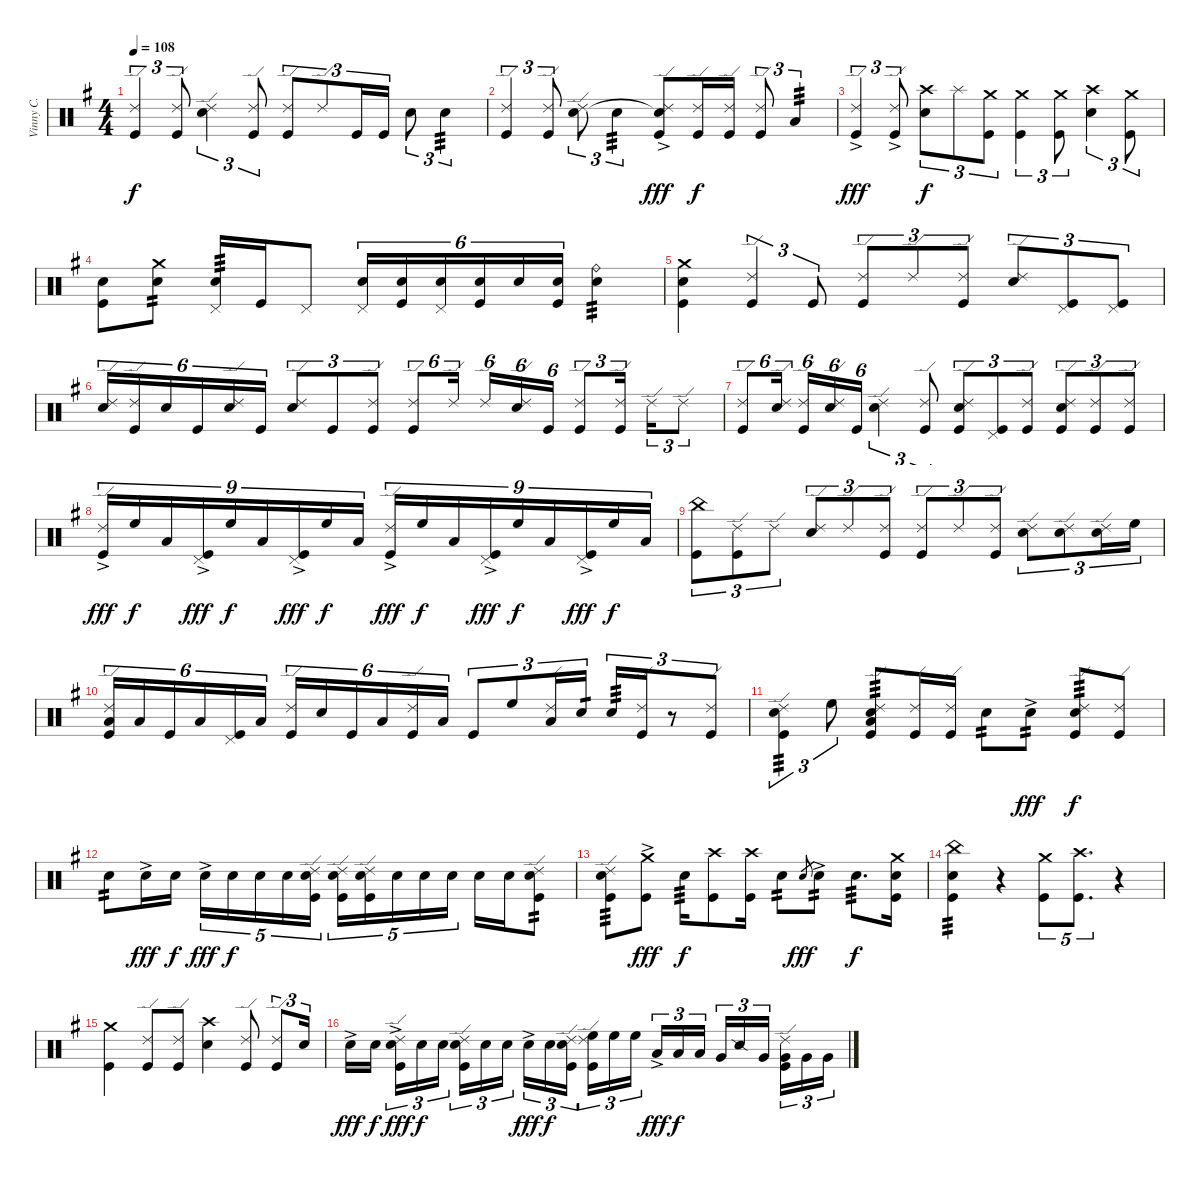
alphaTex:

\track ("Vinny C." "Vinny C.") {instrument percussion}
\staff {score}
\articulation defaults
\ts (4 4)
\tempo 108
\clef neutral
\ks g
("Ride (edge) 2" "Kick (hit)").4{tu (3 2) dy f} ("Ride (edge) 2" "Kick (hit)").8{tu (3 2)} ("Ride (edge) 2" "Electric Snare (hit)").4{tu (3 2)} ("Ride (edge) 2" "Kick (hit)").8{tu (3 2)} ("Ride (edge) 2" "Kick (hit)").8{tu (3 2)} "Ride (edge) 2".8{tu (3 2)} "Kick (hit)".16{tu (3 2)} "Kick (hit)".16{tu (3 2)} "Electric Snare (hit)".8{tu (3 2)} "Electric Snare (hit)".4{tu (3 2) tp 3} |
("Ride (edge) 2" "Kick (hit)").4{tu (3 2)} ("Ride (edge) 2" "Kick (hit)").8{tu (3 2)} ("Ride (edge) 2" "Electric Snare (hit)").8{tu (3 2)} "Electric Snare (hit)".4{tu (3 2) tp 3} ("Ride (edge) 2"{ac} "Electric Snare (hit)"{t} "Kick (hit)").8{dy fff} ("Ride (edge) 2" "Kick (hit)").16{dy f} ("Ride (edge) 2" "Kick (hit)").16 ("Ride (edge) 2" "Kick (hit)").8{tu (3 2)} "Low Tom (hit)".4{tu (3 2) tp 3} |
("Ride (edge) 2"{ac} "Kick (hit)").4{tu (3 2) dy fff} ("Ride (edge) 2"{ac} "Kick (hit)").8{tu (3 2)} ("Crash high (hit)" "Electric Snare (hit)").8{tu (3 2) dy f} "Splash (hit)".8{tu (3 2)} ("Crash medium (hit)" "Kick (hit)").8{tu (3 2)} ("Crash medium (hit)" "Kick (hit)").4{tu (3 2)} ("Crash medium (hit)" "Kick (hit)").8{tu (3 2)} ("Crash high (hit)" "Electric Snare (hit)").4{tu (3 2)} ("Crash medium (hit)" "Kick (hit)").8{tu (3 2)} |
("Electric Snare (hit)" "Kick (hit)").8 ("Crash medium (hit)" "Electric Snare (hit)").8{tp 2} ("Pedal Hi-Hat (hit)" "Electric Snare (hit)").16{tp 3} "Kick (hit)".16 "Pedal Hi-Hat (hit)".8 ("Pedal Hi-Hat (hit)" "Electric Snare (hit)").16{tu (6 4)} ("Electric Snare (hit)" "Kick (hit)").16{tu (6 4)} ("Pedal Hi-Hat (hit)" "Electric Snare (hit)").16{tu (6 4)} ("Electric Snare (hit)" "Kick (hit)").16{tu (6 4)} "Electric Snare (hit)".16{tu (6 4)} ("Electric Snare (hit)" "Kick (hit)").16{tu (6 4)} ("Ride (bell)" "Electric Snare (hit)").4{tp 3} |
("Crash medium (hit)" "Electric Snare (hit)" "Kick (hit)").4 ("Ride (edge) 2" "Kick (hit)").4{tu (3 2)} "Kick (hit)".8{tu (3 2)} ("Ride (edge) 2" "Kick (hit)").8{tu (3 2)} "Ride (edge) 2".8{tu (3 2)} ("Ride (edge) 2" "Kick (hit)").8{tu (3 2)} ("Ride (edge) 2" "Electric Snare (hit)").8{tu (3 2)} ("Pedal Hi-Hat (hit)" "Kick (hit)").8{tu (3 2)} ("Pedal Hi-Hat (hit)" "Kick (hit)").8{tu (3 2)} |
("Ride (edge) 2" "Electric Snare (hit)").16{tu (6 4)} ("Ride (edge) 2" "Kick (hit)").16{tu (6 4)} "Electric Snare (hit)".16{tu (6 4)} "Kick (hit)".16{tu (6 4)} ("Ride (edge) 2" "Electric Snare (hit)").16{tu (6 4)} "Kick (hit)".16{tu (6 4)} ("Ride (edge) 2" "Electric Snare (hit)").8{tu (3 2)} "Kick (hit)".8{tu (3 2)} ("Ride (edge) 2" "Kick (hit)").8{tu (3 2)} ("Ride (edge) 2" "Kick (hit)").8{tu (6 4)} "Ride (edge) 2".16{tu (6 4)} "Ride (edge) 2".16{tu (6 4)} ("Ride (edge) 2" "Electric Snare (hit)").16{tu (6 4)} "Kick (hit)".16{tu (6 4)} ("Ride (edge) 2" "Kick (hit)").8{tu (3 2)} ("Ride (edge) 2" "Kick (hit)").16{tu (3 2)} "Ride (edge) 2".16{tu (3 2)} "Ride (edge) 2".8{tu (3 2)} |
("Ride (edge) 2" "Kick (hit)").8{tu (6 4)} ("Ride (edge) 2" "Electric Snare (hit)").16{tu (6 4)} ("Ride (edge) 2" "Kick (hit)").16{tu (6 4)} ("Ride (edge) 2" "Electric Snare (hit)").16{tu (6 4)} "Kick (hit)".16{tu (6 4)} ("Ride (edge) 2" "Electric Snare (hit)").4{tu (3 2)} ("Ride (edge) 2" "Kick (hit)").8{tu (3 2)} ("Ride (edge) 2" "Electric Snare (hit)" "Kick (hit)").8{tu (3 2)} ("Pedal Hi-Hat (hit)" "Kick (hit)").8{tu (3 2)} ("Ride (edge) 2" "Kick (hit)").8{tu (3 2)} ("Ride (edge) 2" "Electric Snare (hit)" "Kick (hit)").8{tu (3 2)} ("Ride (edge) 2" "Kick (hit)").8{tu (3 2)} ("Ride (edge) 2" "Kick (hit)").8{tu (3 2)} |
("Ride (edge) 2"{ac} "Kick (hit)").16{tu (9 8) dy fff} "High Floor Tom (hit)".16{tu (9 8) dy f} "Low Tom (hit)".16{tu (9 8)} ("Pedal Hi-Hat (hit)"{ac} "Kick (hit)").16{tu (9 8) dy fff} "High Floor Tom (hit)".16{tu (9 8) dy f} "Low Tom (hit)".16{tu (9 8)} ("Pedal Hi-Hat (hit)"{ac} "Kick (hit)").16{tu (9 8) dy fff} "High Floor Tom (hit)".16{tu (9 8) dy f} "Low Tom (hit)".16{tu (9 8)} ("Ride (edge) 2"{ac} "Kick (hit)").16{tu (9 8) dy fff} "High Floor Tom (hit)".16{tu (9 8) dy f} "Low Tom (hit)".16{tu (9 8)} ("Pedal Hi-Hat (hit)"{ac} "Kick (hit)").16{tu (9 8) dy fff} "High Floor Tom (hit)".16{tu (9 8) dy f} "Low Tom (hit)".16{tu (9 8)} ("Pedal Hi-Hat (hit)"{ac} "Kick (hit)").16{tu (9 8) dy fff} "High Floor Tom (hit)".16{tu (9 8) dy f} "Low Tom (hit)".16{tu (9 8)} |
("China (hit)" "Kick (hit)").8{tu (3 2)} ("Ride (edge) 2" "Kick (hit)").8{tu (3 2)} "Ride (edge) 2".8{tu (3 2)} ("Ride (edge) 2" "Electric Snare (hit)").8{tu (3 2)} "Ride (edge) 2".8{tu (3 2)} ("Ride (edge) 2" "Kick (hit)").8{tu (3 2)} ("Ride (edge) 2" "Kick (hit)").8{tu (3 2)} "Ride (edge) 2".8{tu (3 2)} ("Ride (edge) 2" "Kick (hit)").8{tu (3 2)} ("Ride (edge) 2" "Electric Snare (hit)").8{tu (3 2)} ("Ride (edge) 2" "Electric Snare (hit)").8{tu (3 2)} ("Ride (edge) 2" "Electric Snare (hit)").16{tu (3 2)} "High Floor Tom (hit)".16{tu (3 2)} |
("Ride (edge) 2" "Low Tom (hit)" "Kick (hit)").16{tu (6 4)} "Low Tom (hit)".16{tu (6 4)} "Kick (hit)".16{tu (6 4)} "Low Tom (hit)".16{tu (6 4)} ("Pedal Hi-Hat (hit)" "Kick (hit)").16{tu (6 4)} "Low Tom (hit)".16{tu (6 4)} ("Ride (edge) 2" "Kick (hit)").16{tu (6 4)} "Electric Snare (hit)".16{tu (6 4)} "Kick (hit)".16{tu (6 4)} "Low Tom (hit)".16{tu (6 4)} ("Ride (edge) 2" "Kick (hit)").16{tu (6 4)} "Low Tom (hit)".16{tu (6 4)} "Kick (hit)".8{tu (3 2)} "High Floor Tom (hit)".8{tu (3 2)} ("Ride (edge) 2" "Low Tom (hit)").16{tu (3 2)} "Electric Snare (hit)".16{tu (3 2) tp 1} "Electric Snare (hit)".16{tu (3 2) tp 3} ("Ride (edge) 2" "Kick (hit)").16{tu (3 2)} r.8{tu (3 2)} ("Ride (edge) 2" "Kick (hit)").8{tu (3 2)} |
("Ride (edge) 2" "Electric Snare (hit)" "Kick (hit)").4{tu (3 2) tp 3} "High Floor Tom (hit)".8{tu (3 2)} ("Ride (edge) 2" "Low Tom (hit)" "Electric Snare (hit)" "Kick (hit)").8{tp 3} ("Ride (edge) 2" "Kick (hit)").16 ("Ride (edge) 2" "Kick (hit)").16 "Electric Snare (hit)".8{tp 2} "Electric Snare (hit)"{ac}.8{tp 2 dy fff} ("Ride (edge) 2" "Electric Snare (hit)" "Kick (hit)").8{tp 3 dy f} ("Ride (edge) 2" "Kick (hit)").8 |
"Electric Snare (hit)".8{tp 2} "Electric Snare (hit)"{ac}.16{dy fff} "Electric Snare (hit)".16{dy f} "Electric Snare (hit)"{ac}.16{tu (5 4) dy fff} "Electric Snare (hit)".16{tu (5 4) dy f} "Electric Snare (hit)".16{tu (5 4)} "Electric Snare (hit)".16{tu (5 4)} ("Ride (edge) 2" "Electric Snare (hit)" "Kick (hit)").16{tu (5 4)} ("Ride (edge) 2" "Electric Snare (hit)" "Kick (hit)").16{tu (5 4)} ("Ride (edge) 2" "Electric Snare (hit)" "Kick (hit)").16{tu (5 4)} "Electric Snare (hit)".16{tu (5 4)} "Electric Snare (hit)".16{tu (5 4)} "Electric Snare (hit)".16{tu (5 4)} "Electric Snare (hit)".16 "Electric Snare (hit)".16 ("Ride (edge) 2" "Electric Snare (hit)" "Kick (hit)").8{tp 2} |
("Ride (edge) 2" "Electric Snare (hit)" "Kick (hit)").8{tp 3} ("Crash medium (hit)" "Kick (hit)"{ac}).8{dy fff} "Electric Snare (hit)".16{tp 3 dy f} ("Crash high (hit)" "Kick (hit)").8 ("Crash high (hit)" "Kick (hit)").16 "Electric Snare (hit)".8{tp 2} "Electric Snare (hit)".8{gr dy fff} "Electric Snare (hit)"{ac}.8{tp 2} "Electric Snare (hit)".8{d tp 3 dy f} ("Crash medium (hit)" "Electric Snare (hit)" "Kick (hit)").16 |
("China (hit)" "Electric Snare (hit)" "Kick (hit)").4{tp 3} r.4 ("Crash medium (hit)" "Kick (hit)").8{tu (5 4)} ("Crash high (hit)" "Kick (hit)").8{d tu (5 4)} r.4 |
("Crash medium (hit)" "Kick (hit)").4 ("Ride (edge) 2" "Kick (hit)").8 ("Ride (edge) 2" "Kick (hit)").8 ("Crash high (hit)" "Electric Snare (hit)").4 ("Ride (edge) 2" "Kick (hit)").8 ("Ride (edge) 2" "Kick (hit)").8{tu (3 2)} "Electric Snare (hit)".16{tu (3 2)} |
"Electric Snare (hit)"{ac}.16{dy fff} "Electric Snare (hit)".16{dy f} ("Ride (edge) 2"{ac} "Electric Snare (hit)" "Kick (hit)").16{tu (3 2) dy fff} "Electric Snare (hit)".16{tu (3 2) dy f} "Electric Snare (hit)".16{tu (3 2)} ("Ride (edge) 2" "Electric Snare (hit)" "Kick (hit)").16{tu (3 2)} "Electric Snare (hit)".16{tu (3 2)} "Electric Snare (hit)".16{tu (3 2)} "Electric Snare (hit)"{ac}.16{tu (3 2) dy fff} "Electric Snare (hit)".16{tu (3 2) dy f} ("Ride (edge) 2" "Electric Snare (hit)" "Kick (hit)").16{tu (3 2)} ("Ride (edge) 2" "High Floor Tom (hit)" "Kick (hit)").16{tu (3 2)} "High Floor Tom (hit)".16{tu (3 2)} "High Floor Tom (hit)".16{tu (3 2)} "Low Tom (hit)"{ac}.16{tu (3 2) dy fff} "Low Tom (hit)".16{tu (3 2) dy f} "Low Tom (hit)".16{tu (3 2)} "Very Low Tom (hit)".16{tu (3 2)} "Snare (side stick) 2".16{tu (3 2)} "Very Low Tom (hit)".16{tu (3 2)} ("Ride (edge) 2" "Very Low Tom (hit)" "Kick (hit)").16{tu (3 2)} "Very Low Tom (hit)".16{tu (3 2)} "Very Low Tom (hit)".16{tu (3 2)}
